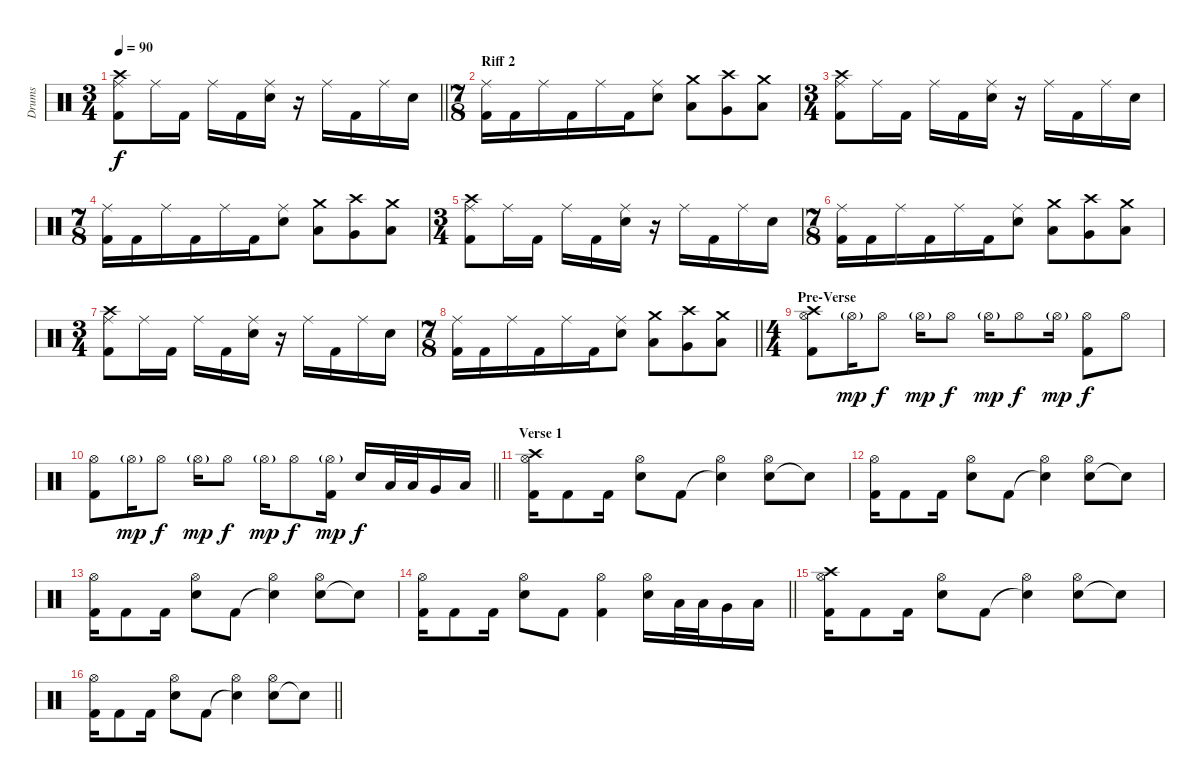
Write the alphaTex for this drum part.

\track ("Drums" "Drums") {instrument percussion}
\staff {score}
\articulation defaults
\ts (3 4)
\tempo 90
\clef neutral
\barLineRight lightlight
\ks c
("Kick (hit) 2" "Ride (middle)" "Crash high (hit)").8{dy f} "Ride (middle)".16 "Kick (hit) 2".16 "Ride (middle)".16 "Kick (hit) 2".16 ("Snare (hit) 2" "Ride (middle)").16 r.16 "Ride (middle)".16 "Kick (hit) 2".16 "Ride (middle)".16 "Snare (hit) 2".16 |
\ts (7 8)
\section ("" "Riff 2")
("Kick (hit) 2" "Ride (middle)").16 "Kick (hit) 2".16 "Ride (middle)".16 "Kick (hit) 2".16 "Ride (middle)".16 "Kick (hit) 2".16 ("Snare (hit) 2" "Ride (middle)").8 ("Low Tom (hit)" "Crash medium (hit)").8 ("Very Low Tom (hit)" "Crash high (hit)").8 ("Low Floor Tom (hit)" "Crash medium (hit)").8 |
\ts (3 4)
("Kick (hit) 2" "Ride (middle)" "Crash high (hit)").8 "Ride (middle)".16 "Kick (hit) 2".16 "Ride (middle)".16 "Kick (hit) 2".16 ("Snare (hit) 2" "Ride (middle)").16 r.16 "Ride (middle)".16 "Kick (hit) 2".16 "Ride (middle)".16 "Snare (hit) 2".16 |
\ts (7 8)
("Kick (hit) 2" "Ride (middle)").16 "Kick (hit) 2".16 "Ride (middle)".16 "Kick (hit) 2".16 "Ride (middle)".16 "Kick (hit) 2".16 ("Snare (hit) 2" "Ride (middle)").8 ("Low Tom (hit)" "Crash medium (hit)").8 ("Very Low Tom (hit)" "Crash high (hit)").8 ("Low Floor Tom (hit)" "Crash medium (hit)").8 |
\ts (3 4)
("Kick (hit) 2" "Ride (middle)" "Crash high (hit)").8 "Ride (middle)".16 "Kick (hit) 2".16 "Ride (middle)".16 "Kick (hit) 2".16 ("Snare (hit) 2" "Ride (middle)").16 r.16 "Ride (middle)".16 "Kick (hit) 2".16 "Ride (middle)".16 "Snare (hit) 2".16 |
\ts (7 8)
("Kick (hit) 2" "Ride (middle)").16 "Kick (hit) 2".16 "Ride (middle)".16 "Kick (hit) 2".16 "Ride (middle)".16 "Kick (hit) 2".16 ("Snare (hit) 2" "Ride (middle)").8 ("Low Tom (hit)" "Crash medium (hit)").8 ("Very Low Tom (hit)" "Crash high (hit)").8 ("Low Floor Tom (hit)" "Crash medium (hit)").8 |
\ts (3 4)
("Kick (hit) 2" "Ride (middle)" "Crash high (hit)").8 "Ride (middle)".16 "Kick (hit) 2".16 "Ride (middle)".16 "Kick (hit) 2".16 ("Snare (hit) 2" "Ride (middle)").16 r.16 "Ride (middle)".16 "Kick (hit) 2".16 "Ride (middle)".16 "Snare (hit) 2".16 |
\ts (7 8)
\barLineRight lightlight
("Kick (hit) 2" "Ride (middle)").16 "Kick (hit) 2".16 "Ride (middle)".16 "Kick (hit) 2".16 "Ride (middle)".16 "Kick (hit) 2".16 ("Snare (hit) 2" "Ride (middle)").8 ("Low Tom (hit)" "Crash medium (hit)").8 ("Very Low Tom (hit)" "Crash high (hit)").8 ("Low Floor Tom (hit)" "Crash medium (hit)").8 |
\ts (4 4)
\section ("" "Pre-Verse")
("Kick (hit) 2" "Hi-Hat (open)" "Crash high (hit)").8 "Hi-Hat (open)"{g}.16{dy mp} "Hi-Hat (open)".8{dy f} "Hi-Hat (open)"{g}.16{dy mp} "Hi-Hat (open)".8{dy f} "Hi-Hat (open)"{g}.16{dy mp} "Hi-Hat (open)".8{dy f} "Hi-Hat (open)"{g}.16{dy mp} ("Kick (hit) 2" "Hi-Hat (open)").8{dy f} "Hi-Hat (open)".8 |
\barLineRight lightlight
("Kick (hit) 2" "Hi-Hat (open)").8 "Hi-Hat (open)"{g}.16{dy mp} "Hi-Hat (open)".8{dy f} "Hi-Hat (open)"{g}.16{dy mp} "Hi-Hat (open)".8{dy f} "Hi-Hat (open)"{g}.16{dy mp} "Hi-Hat (open)".8{dy f} ("Kick (hit) 2" "Hi-Hat (open)"{g}).16{dy mp} "Snare (hit) 2".16{dy f} "Low Tom (hit)".32 "Low Tom (hit)".32 "Very Low Tom (hit)".16 "Low Floor Tom (hit)".16 |
\section ("" "Verse 1")
("Kick (hit) 2" "Hi-Hat (open)" "Crash high (hit)").16 "Kick (hit) 2".8 "Kick (hit) 2".16 ("Snare (hit) 2" "Hi-Hat (open)").8 "Kick (hit) 2".8 ("Snare (hit)"{t} "Hi-Hat (open)").4 ("Snare (hit) 2" "Hi-Hat (open)").8 "Snare (hit)"{t}.8 |
("Kick (hit) 2" "Hi-Hat (open)").16 "Kick (hit) 2".8 "Kick (hit) 2".16 ("Snare (hit) 2" "Hi-Hat (open)").8 "Kick (hit) 2".8 ("Snare (hit)"{t} "Hi-Hat (open)").4 ("Snare (hit) 2" "Hi-Hat (open)").8 "Snare (hit)"{t}.8 |
("Kick (hit) 2" "Hi-Hat (open)").16 "Kick (hit) 2".8 "Kick (hit) 2".16 ("Snare (hit) 2" "Hi-Hat (open)").8 "Kick (hit) 2".8 ("Snare (hit)"{t} "Hi-Hat (open)").4 ("Snare (hit) 2" "Hi-Hat (open)").8 "Snare (hit)"{t}.8 |
\barLineRight lightlight
("Kick (hit) 2" "Hi-Hat (open)").16 "Kick (hit) 2".8 "Kick (hit) 2".16 ("Snare (hit) 2" "Hi-Hat (open)").8 "Kick (hit) 2".8 ("Kick (hit) 2" "Hi-Hat (open)").4 ("Snare (hit) 2" "Hi-Hat (open)").16 "Low Tom (hit)".32 "Low Tom (hit)".32 "Very Low Tom (hit)".16 "Low Floor Tom (hit)".16 |
("Kick (hit) 2" "Hi-Hat (open)" "Crash high (hit)").16 "Kick (hit) 2".8 "Kick (hit) 2".16 ("Snare (hit) 2" "Hi-Hat (open)").8 "Kick (hit) 2".8 ("Snare (hit)"{t} "Hi-Hat (open)").4 ("Snare (hit) 2" "Hi-Hat (open)").8 "Snare (hit)"{t}.8 |
\barLineRight lightlight
("Kick (hit) 2" "Hi-Hat (open)").16 "Kick (hit) 2".8 "Kick (hit) 2".16 ("Snare (hit) 2" "Hi-Hat (open)").8 "Kick (hit) 2".8 ("Snare (hit)"{t} "Hi-Hat (open)").4 ("Snare (hit) 2" "Hi-Hat (open)").8 "Snare (hit)"{t}.8
